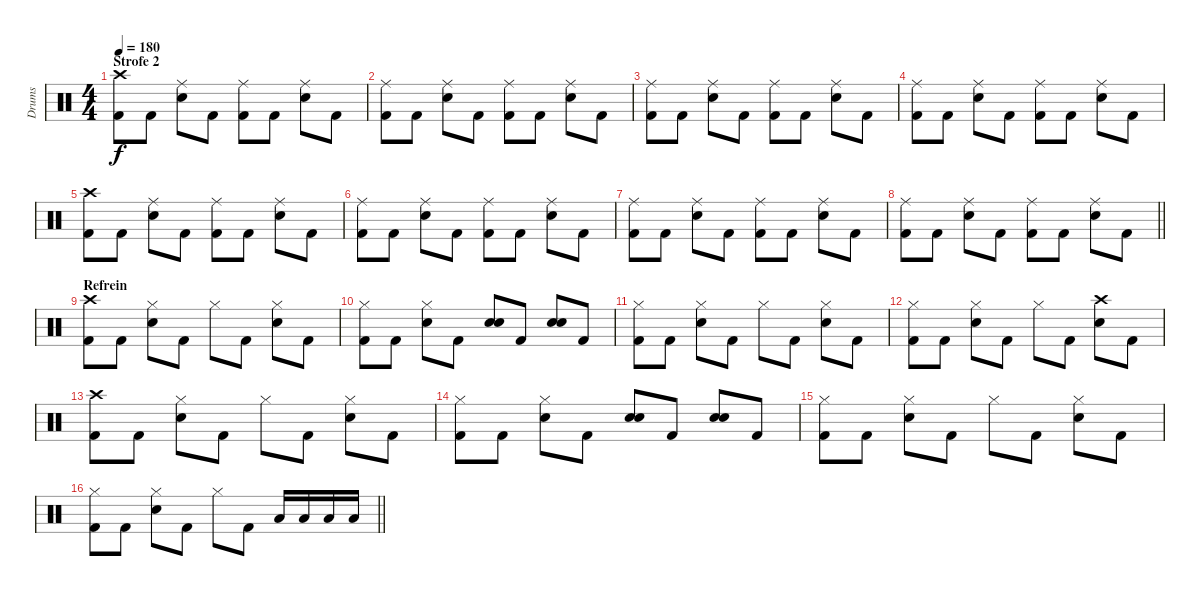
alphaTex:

\track ("Drums" "Drums") {instrument percussion}
\staff {score}
\articulation defaults
\ts (4 4)
\section ("" "Strofe 2")
\tempo 180
\clef neutral
\ks c
("Crash high (hit)" "Kick (hit) 2").8{dy f} "Kick (hit) 2".8 ("Ride (middle)" "Snare (hit) 2").8 "Kick (hit) 2".8 ("Ride (middle)" "Kick (hit) 2").8 "Kick (hit) 2".8 ("Ride (middle)" "Snare (hit) 2").8 "Kick (hit) 2".8 |
("Ride (middle)" "Kick (hit) 2").8 "Kick (hit) 2".8 ("Ride (middle)" "Snare (hit) 2").8 "Kick (hit) 2".8 ("Ride (middle)" "Kick (hit) 2").8 "Kick (hit) 2".8 ("Ride (middle)" "Snare (hit) 2").8 "Kick (hit) 2".8 |
("Ride (middle)" "Kick (hit) 2").8 "Kick (hit) 2".8 ("Ride (middle)" "Snare (hit) 2").8 "Kick (hit) 2".8 ("Ride (middle)" "Kick (hit) 2").8 "Kick (hit) 2".8 ("Ride (middle)" "Snare (hit) 2").8 "Kick (hit) 2".8 |
("Ride (middle)" "Kick (hit) 2").8 "Kick (hit) 2".8 ("Ride (middle)" "Snare (hit) 2").8 "Kick (hit) 2".8 ("Ride (middle)" "Kick (hit) 2").8 "Kick (hit) 2".8 ("Ride (middle)" "Snare (hit) 2").8 "Kick (hit) 2".8 |
("Crash high (hit)" "Kick (hit) 2").8 "Kick (hit) 2".8 ("Ride (middle)" "Snare (hit) 2").8 "Kick (hit) 2".8 ("Ride (middle)" "Kick (hit) 2").8 "Kick (hit) 2".8 ("Ride (middle)" "Snare (hit) 2").8 "Kick (hit) 2".8 |
("Ride (middle)" "Kick (hit) 2").8 "Kick (hit) 2".8 ("Ride (middle)" "Snare (hit) 2").8 "Kick (hit) 2".8 ("Ride (middle)" "Kick (hit) 2").8 "Kick (hit) 2".8 ("Ride (middle)" "Snare (hit) 2").8 "Kick (hit) 2".8 |
("Ride (middle)" "Kick (hit) 2").8 "Kick (hit) 2".8 ("Ride (middle)" "Snare (hit) 2").8 "Kick (hit) 2".8 ("Ride (middle)" "Kick (hit) 2").8 "Kick (hit) 2".8 ("Ride (middle)" "Snare (hit) 2").8 "Kick (hit) 2".8 |
\barLineRight lightlight
("Ride (middle)" "Kick (hit) 2").8 "Kick (hit) 2".8 ("Ride (middle)" "Snare (hit) 2").8 "Kick (hit) 2".8 ("Ride (middle)" "Kick (hit) 2").8 "Kick (hit) 2".8 ("Ride (middle)" "Snare (hit) 2").8 "Kick (hit) 2".8 |
\section ("" "Refrein")
("Crash high (hit)" "Kick (hit) 2").8 "Kick (hit) 2".8 ("Hi-Hat (closed)" "Snare (hit) 2").8 "Kick (hit) 2".8 "Hi-Hat (closed)".8 "Kick (hit) 2".8 ("Hi-Hat (closed)" "Snare (hit) 2").8 "Kick (hit) 2".8 |
("Hi-Hat (closed)" "Kick (hit) 2").8 "Kick (hit) 2".8 ("Hi-Hat (closed)" "Snare (hit) 2").8 "Kick (hit) 2".8 ("Snare (hit) 2" "Snare (hit) 2").8{bd 120} "Kick (hit) 2".8 ("Snare (hit) 2" "Snare (hit) 2").8{bd 120} "Kick (hit) 2".8 |
("Hi-Hat (closed)" "Kick (hit) 2").8 "Kick (hit) 2".8 ("Hi-Hat (closed)" "Snare (hit) 2").8 "Kick (hit) 2".8 "Hi-Hat (closed)".8 "Kick (hit) 2".8 ("Hi-Hat (closed)" "Snare (hit) 2").8 "Kick (hit) 2".8 |
("Hi-Hat (closed)" "Kick (hit) 2").8 "Kick (hit) 2".8 ("Hi-Hat (closed)" "Snare (hit) 2").8 "Kick (hit) 2".8 "Hi-Hat (closed)".8 "Kick (hit) 2".8 ("Crash high (hit)" "Snare (hit) 2").8 "Kick (hit) 2".8 |
("Crash high (hit)" "Kick (hit) 2").8 "Kick (hit) 2".8 ("Hi-Hat (closed)" "Snare (hit) 2").8 "Kick (hit) 2".8 "Hi-Hat (closed)".8 "Kick (hit) 2".8 ("Hi-Hat (closed)" "Snare (hit) 2").8 "Kick (hit) 2".8 |
("Hi-Hat (closed)" "Kick (hit) 2").8 "Kick (hit) 2".8 ("Hi-Hat (closed)" "Snare (hit) 2").8 "Kick (hit) 2".8 ("Snare (hit) 2" "Snare (hit) 2").8{bd 120} "Kick (hit) 2".8 ("Snare (hit) 2" "Snare (hit) 2").8{bd 120} "Kick (hit) 2".8 |
("Hi-Hat (closed)" "Kick (hit) 2").8 "Kick (hit) 2".8 ("Hi-Hat (closed)" "Snare (hit) 2").8 "Kick (hit) 2".8 "Hi-Hat (closed)".8 "Kick (hit) 2".8 ("Hi-Hat (closed)" "Snare (hit) 2").8 "Kick (hit) 2".8 |
\barLineRight lightlight
("Hi-Hat (closed)" "Kick (hit) 2").8 "Kick (hit) 2".8 ("Hi-Hat (closed)" "Snare (hit) 2").8 "Kick (hit) 2".8 "Hi-Hat (closed)".8 "Kick (hit) 2".8 "Low Tom (hit)".16 "Low Tom (hit)".16 "Low Tom (hit)".16 "Low Tom (hit)".16
